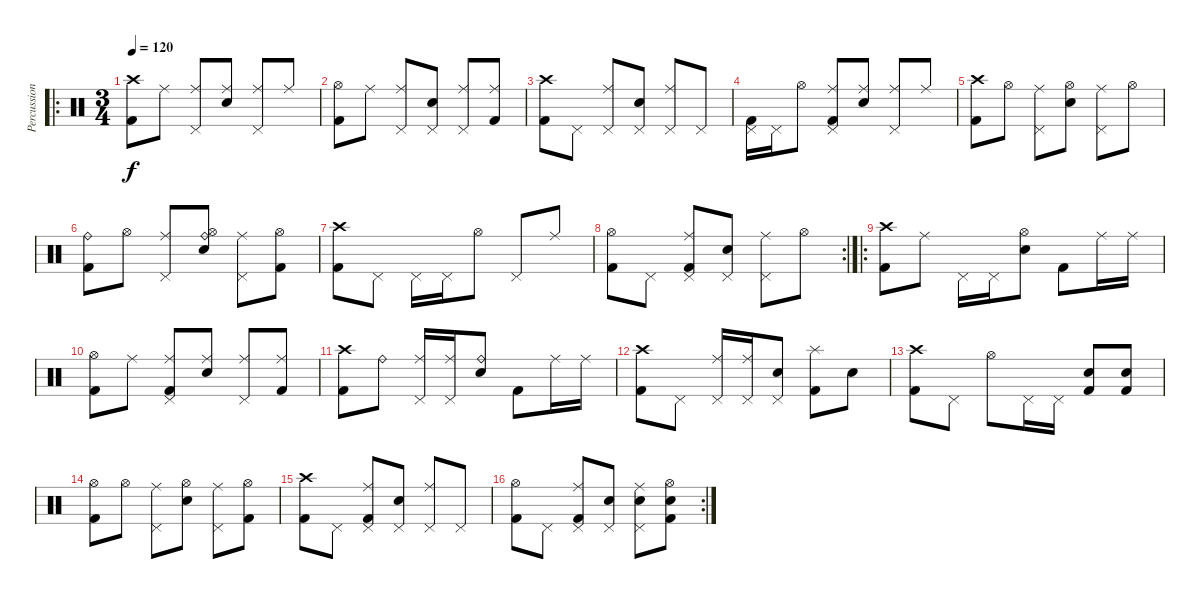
\track ("Percussion" "Percussion") {instrument percussion}
\staff {score}
\articulation defaults
\ro
\ts (3 4)
\tempo 120
\clef neutral
\ks c
("Kick (hit) 2" "Crash high (hit)").8{dy f} "Ride (middle)".8 ("Ride (middle)" "Pedal Hi-Hat (hit)").8 ("Electric Snare (hit)" "Ride (middle)").8 ("Ride (middle)" "Pedal Hi-Hat (hit)").8 "Ride (middle)".8 |
("Kick (hit) 2" "Hi-Hat (open)").8 "Ride (middle)".8 ("Ride (middle)" "Pedal Hi-Hat (hit)").8 ("Electric Snare (hit)" "Pedal Hi-Hat (hit)").8 ("Ride (middle)" "Pedal Hi-Hat (hit)").8 ("Kick (hit) 2" "Ride (middle)").8 |
("Kick (hit) 2" "Crash high (hit)").8 "Pedal Hi-Hat (hit)".8 ("Pedal Hi-Hat (hit)" "Ride (middle)").8 ("Electric Snare (hit)" "Pedal Hi-Hat (hit)").8 ("Pedal Hi-Hat (hit)" "Ride (middle)").8 "Pedal Hi-Hat (hit)".8 |
("Kick (hit) 2" "Pedal Hi-Hat (hit)").16 "Pedal Hi-Hat (hit)".16 "Hi-Hat (open)".8 ("Kick (hit) 2" "Ride (middle)" "Pedal Hi-Hat (hit)").8 ("Ride (middle)" "Electric Snare (hit)").8 ("Ride (middle)" "Pedal Hi-Hat (hit)").8 "Ride (middle)".8 |
("Kick (hit) 2" "Crash high (hit)").8 "Hi-Hat (open)".8 ("Ride (middle)" "Pedal Hi-Hat (hit)").8 ("Electric Snare (hit)" "Hi-Hat (open)").8 ("Ride (middle)" "Pedal Hi-Hat (hit)").8 "Hi-Hat (open)".8 |
("Kick (hit) 2" "Ride (bell)").8 "Hi-Hat (open)".8 ("Ride (middle)" "Pedal Hi-Hat (hit)").8 ("Electric Snare (hit)" "Hi-Hat (open)" "Ride (bell)").8 ("Ride (middle)" "Pedal Hi-Hat (hit)").8 ("Kick (hit) 2" "Hi-Hat (open)").8 |
("Kick (hit) 2" "Crash high (hit)").8 "Pedal Hi-Hat (hit)".8 "Pedal Hi-Hat (hit)".16 "Pedal Hi-Hat (hit)".16 "Hi-Hat (open)".8 "Pedal Hi-Hat (hit)".8 "Ride (middle)".8 |
\rc 2
("Kick (hit) 2" "Hi-Hat (open)").8 "Pedal Hi-Hat (hit)".8 ("Kick (hit) 2" "Pedal Hi-Hat (hit)" "Ride (middle)").8 ("Electric Snare (hit)" "Pedal Hi-Hat (hit)").8 ("Pedal Hi-Hat (hit)" "Ride (middle)").8 "Hi-Hat (open)".8 |
\ro
("Kick (hit) 2" "Crash high (hit)").8 "Ride (middle)".8 "Pedal Hi-Hat (hit)".16 "Pedal Hi-Hat (hit)".16 ("Electric Snare (hit)" "Hi-Hat (open)").8 "Kick (hit) 2".8 "Ride (middle)".16 "Ride (middle)".16 |
("Kick (hit) 2" "Hi-Hat (open)").8 "Ride (middle)".8 ("Kick (hit) 2" "Ride (middle)" "Pedal Hi-Hat (hit)").8 ("Electric Snare (hit)" "Ride (middle)").8 ("Ride (middle)" "Pedal Hi-Hat (hit)").8 ("Kick (hit) 2" "Ride (middle)").8 |
("Kick (hit) 2" "Crash high (hit)").8 "Ride (bell)".8 ("Pedal Hi-Hat (hit)" "Ride (middle)").16 ("Pedal Hi-Hat (hit)" "Ride (middle)").16 ("Electric Snare (hit)" "Ride (bell)").8 "Kick (hit) 2".8 "Ride (middle)".16 "Ride (middle)".16 |
("Kick (hit) 2" "Crash high (hit)").8 "Pedal Hi-Hat (hit)".8 ("Pedal Hi-Hat (hit)" "Ride (middle)").16 ("Pedal Hi-Hat (hit)" "Ride (middle)").16 ("Electric Snare (hit)" "Pedal Hi-Hat (hit)").8 ("Kick (hit) 2" "Splash (hit)").8 "Electric Snare (hit)".8 |
("Kick (hit) 2" "Crash high (hit)").8 "Pedal Hi-Hat (hit)".8 "Hi-Hat (open)".8 "Pedal Hi-Hat (hit)".16 "Pedal Hi-Hat (hit)".16 ("Kick (hit) 2" "Electric Snare (hit)").8 ("Kick (hit) 2" "Electric Snare (hit)").8 |
("Kick (hit) 2" "Hi-Hat (open)").8 "Hi-Hat (open)".8 ("Ride (middle)" "Pedal Hi-Hat (hit)").8 ("Electric Snare (hit)" "Hi-Hat (open)").8 ("Ride (middle)" "Pedal Hi-Hat (hit)").8 ("Kick (hit) 2" "Hi-Hat (open)").8 |
("Kick (hit) 2" "Crash high (hit)").8 "Pedal Hi-Hat (hit)".8 ("Kick (hit) 2" "Pedal Hi-Hat (hit)" "Ride (middle)").8 ("Electric Snare (hit)" "Pedal Hi-Hat (hit)").8 ("Pedal Hi-Hat (hit)" "Ride (middle)").8 "Pedal Hi-Hat (hit)".8 |
\rc 2
("Kick (hit) 2" "Hi-Hat (open)").8 "Pedal Hi-Hat (hit)".8 ("Kick (hit) 2" "Pedal Hi-Hat (hit)" "Ride (middle)").8 ("Electric Snare (hit)" "Pedal Hi-Hat (hit)").8 ("Electric Snare (hit)" "Pedal Hi-Hat (hit)" "Ride (middle)").8 ("Kick (hit) 2" "Electric Snare (hit)" "Hi-Hat (open)").8
